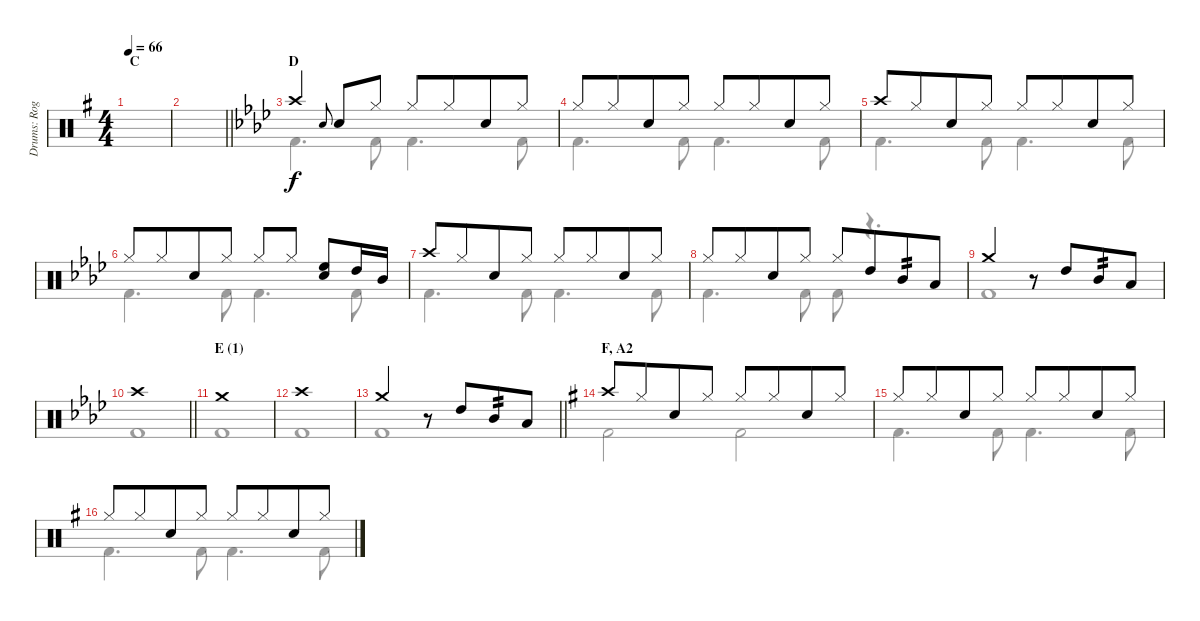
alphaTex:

\track ("Drums: Roger Pope" "Drums: Rog") {instrument percussion}
\staff {score}
\articulation defaults
\voice
\ts (4 4)
\section ("" "C")
\tempo 66
\clef neutral
\ks g
|
\barLineRight lightlight
|
\section ("" "D")
\ks ab "Crash high (hit)".4 "Snare (hit) 2".8{gr onbeat} "Electric Snare (hit)".8 "Hi-Hat (closed)".8 "Hi-Hat (closed)".8 "Hi-Hat (closed)".8{beam merge} "Electric Snare (hit)".8 "Hi-Hat (closed)".8
|
"Hi-Hat (closed)".8 "Hi-Hat (closed)".8{beam merge} "Electric Snare (hit)".8 "Hi-Hat (closed)".8 "Hi-Hat (closed)".8 "Hi-Hat (closed)".8{beam merge} "Electric Snare (hit)".8 "Hi-Hat (closed)".8 |
"Crash high (hit)".8 "Hi-Hat (closed)".8{beam merge} "Electric Snare (hit)".8 "Hi-Hat (closed)".8 "Hi-Hat (closed)".8 "Hi-Hat (closed)".8{beam merge} "Electric Snare (hit)".8 "Hi-Hat (closed)".8 |
"Hi-Hat (closed)".8 "Hi-Hat (closed)".8{beam merge} "Electric Snare (hit)".8 "Hi-Hat (closed)".8 "Hi-Hat (closed)".8 "Hi-Hat (closed)".8 ("Electric Snare (hit)" "High Floor Tom (hit)").8 "High Tom (hit)".16 "Mid Tom (hit)".16 |
"Crash high (hit)".8 "Hi-Hat (closed)".8{beam merge} "Electric Snare (hit)".8 "Hi-Hat (closed)".8 "Hi-Hat (closed)".8 "Hi-Hat (closed)".8{beam merge} "Electric Snare (hit)".8 "Hi-Hat (closed)".8 |
"Hi-Hat (closed)".8 "Hi-Hat (closed)".8{beam merge} "Electric Snare (hit)".8 "Hi-Hat (closed)".8 "Hi-Hat (closed)".8 "High Tom (hit)".8{beam merge} "Mid Tom (hit)".8{tp 2} "Low Tom (hit)".8 |
"Crash medium (hit)".2 r.8 "High Tom (hit)".8{beam merge} "Mid Tom (hit)".8{tp 2} "Low Tom (hit)".8 |
\barLineRight lightlight "Crash high (hit)".1
|
\section ("" "E (1)")
"Crash medium (hit)".1 |
"Crash high (hit)".1 |
\barLineRight lightlight "Crash medium (hit)".2
r.8 "High Tom (hit)".8{beam merge} "Mid Tom (hit)".8{tp 2} "Low Tom (hit)".8 |
\section ("" "F, A2")
\ks g "Crash high (hit)".8{beam merge} "Hi-Hat (closed)".8{beam merge} "Electric Snare (hit)".8{beam merge} "Hi-Hat (closed)".8 "Hi-Hat (closed)".8 "Hi-Hat (closed)".8{beam merge} "Electric Snare (hit)".8 "Hi-Hat (closed)".8
|
"Hi-Hat (closed)".8{beam merge} "Hi-Hat (closed)".8{beam merge} "Electric Snare (hit)".8{beam merge} "Hi-Hat (closed)".8 "Hi-Hat (closed)".8 "Hi-Hat (closed)".8{beam merge} "Electric Snare (hit)".8 "Hi-Hat (closed)".8 |
"Hi-Hat (closed)".8{beam merge} "Hi-Hat (closed)".8{beam merge} "Electric Snare (hit)".8{beam merge} "Hi-Hat (closed)".8 "Hi-Hat (closed)".8 "Hi-Hat (closed)".8{beam merge} "Electric Snare (hit)".8 "Hi-Hat (closed)".8
\voice
\clef neutral
\ottava regular
\simile none
\ks g
|
\barLineRight lightlight
|
\ks ab "Kick (hit) 2".4{d} "Kick (hit) 2".8 "Kick (hit) 2".4{d} "Kick (hit) 2".8
|
"Kick (hit) 2".4{d} "Kick (hit) 2".8 "Kick (hit) 2".4{d} "Kick (hit) 2".8 |
"Kick (hit) 2".4{d} "Kick (hit) 2".8 "Kick (hit) 2".4{d} "Kick (hit) 2".8 |
"Kick (hit) 2".4{d} "Kick (hit) 2".8 "Kick (hit) 2".4{d} "Kick (hit) 2".8 |
"Kick (hit) 2".4{d} "Kick (hit) 2".8 "Kick (hit) 2".4{d} "Kick (hit) 2".8 |
"Kick (hit) 2".4{d} "Kick (hit) 2".8 "Kick (hit) 2".8 r.4{d} |
"Kick (hit) 2".1 |
\barLineRight lightlight "Kick (hit) 2".1
|
"Kick (hit) 2".1 |
"Kick (hit) 2".1 |
\barLineRight lightlight "Kick (hit) 2".1
|
\ks g "Kick (hit) 2".2 "Kick (hit) 2".2
|
"Kick (hit) 2".4{d} "Kick (hit) 2".8 "Kick (hit) 2".4{d} "Kick (hit) 2".8 |
"Kick (hit) 2".4{d} "Kick (hit) 2".8 "Kick (hit) 2".4{d} "Kick (hit) 2".8
